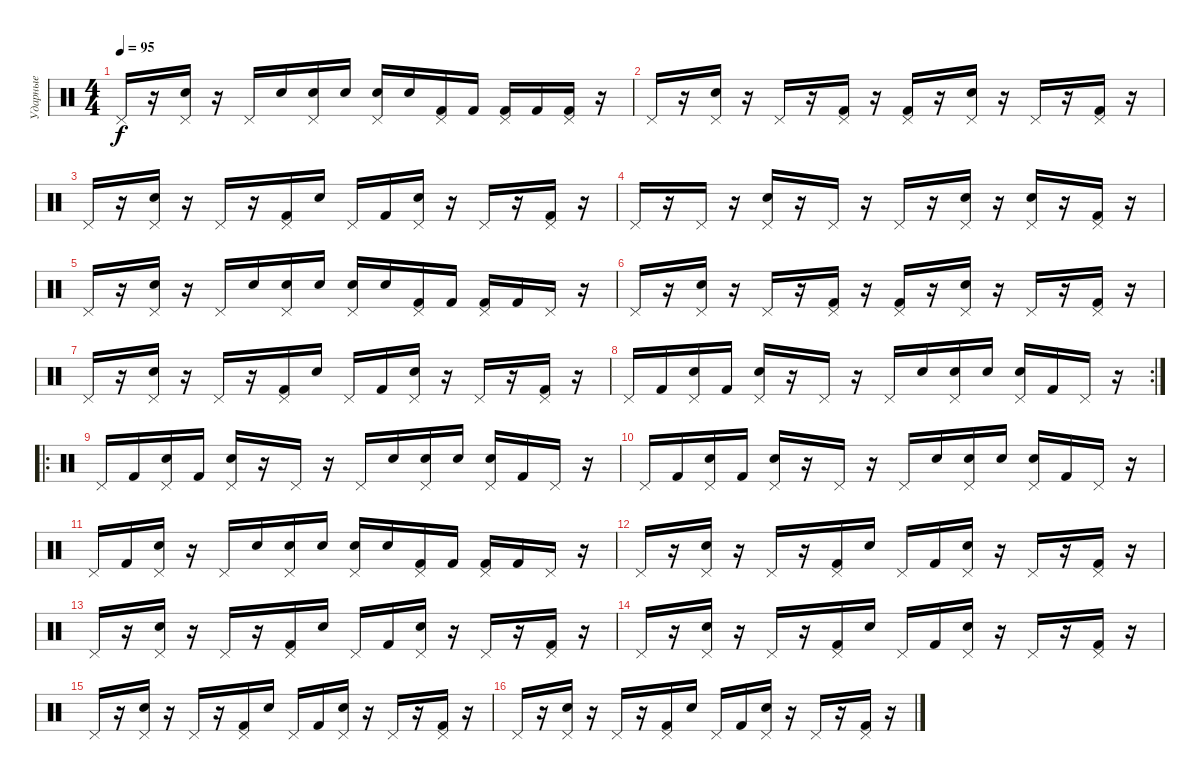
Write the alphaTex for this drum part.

\track ("Ударные" "Ударные") {instrument percussion}
\staff {score}
\articulation defaults
\ts (4 4)
\tempo 95
\clef neutral
\ks c "Pedal Hi-Hat (hit)".16{dy f}
r.16 ("Pedal Hi-Hat (hit)" "Snare (hit) 2").16 r.16 "Pedal Hi-Hat (hit)".16 "Snare (hit) 2".16 ("Pedal Hi-Hat (hit)" "Snare (hit) 2").16 "Snare (hit) 2".16 ("Pedal Hi-Hat (hit)" "Snare (hit) 2").16 "Snare (hit) 2".16 ("Pedal Hi-Hat (hit)" "Kick (hit) 2").16 "Kick (hit) 2".16 ("Pedal Hi-Hat (hit)" "Kick (hit) 2").16 "Kick (hit) 2".16 ("Pedal Hi-Hat (hit)" "Kick (hit) 2").16 r.16 |
"Pedal Hi-Hat (hit)".16 r.16 ("Pedal Hi-Hat (hit)" "Snare (hit) 2").16 r.16 "Pedal Hi-Hat (hit)".16 r.16 ("Pedal Hi-Hat (hit)" "Kick (hit) 2").16 r.16 ("Pedal Hi-Hat (hit)" "Kick (hit) 2").16 r.16 ("Pedal Hi-Hat (hit)" "Snare (hit) 2").16 r.16 "Pedal Hi-Hat (hit)".16 r.16 ("Pedal Hi-Hat (hit)" "Kick (hit) 2").16 r.16 |
"Pedal Hi-Hat (hit)".16 r.16 ("Pedal Hi-Hat (hit)" "Snare (hit) 2").16 r.16 "Pedal Hi-Hat (hit)".16 r.16 ("Pedal Hi-Hat (hit)" "Kick (hit) 2").16 "Snare (hit) 2".16 "Pedal Hi-Hat (hit)".16 "Kick (hit) 2".16 ("Pedal Hi-Hat (hit)" "Snare (hit) 2").16 r.16 "Pedal Hi-Hat (hit)".16 r.16 ("Pedal Hi-Hat (hit)" "Kick (hit) 2").16 r.16 |
"Pedal Hi-Hat (hit)".16 r.16 "Pedal Hi-Hat (hit)".16 r.16 ("Pedal Hi-Hat (hit)" "Snare (hit) 2").16 r.16 "Pedal Hi-Hat (hit)".16 r.16 "Pedal Hi-Hat (hit)".16 r.16 ("Pedal Hi-Hat (hit)" "Snare (hit) 2").16 r.16 ("Pedal Hi-Hat (hit)" "Snare (hit) 2").16 r.16 ("Pedal Hi-Hat (hit)" "Kick (hit) 2").16 r.16 |
"Pedal Hi-Hat (hit)".16 r.16 ("Pedal Hi-Hat (hit)" "Snare (hit) 2").16 r.16 "Pedal Hi-Hat (hit)".16 "Snare (hit) 2".16 ("Pedal Hi-Hat (hit)" "Snare (hit) 2").16 "Snare (hit) 2".16 ("Pedal Hi-Hat (hit)" "Snare (hit) 2").16 "Snare (hit) 2".16 ("Pedal Hi-Hat (hit)" "Kick (hit) 2").16 "Kick (hit) 2".16 ("Pedal Hi-Hat (hit)" "Kick (hit) 2").16 "Kick (hit) 2".16 "Pedal Hi-Hat (hit)".16 r.16 |
"Pedal Hi-Hat (hit)".16 r.16 ("Pedal Hi-Hat (hit)" "Snare (hit) 2").16 r.16 "Pedal Hi-Hat (hit)".16 r.16 ("Pedal Hi-Hat (hit)" "Kick (hit) 2").16 r.16 ("Pedal Hi-Hat (hit)" "Kick (hit) 2").16 r.16 ("Pedal Hi-Hat (hit)" "Snare (hit) 2").16 r.16 "Pedal Hi-Hat (hit)".16 r.16 ("Pedal Hi-Hat (hit)" "Kick (hit) 2").16 r.16 |
"Pedal Hi-Hat (hit)".16 r.16 ("Pedal Hi-Hat (hit)" "Snare (hit) 2").16 r.16 "Pedal Hi-Hat (hit)".16 r.16 ("Pedal Hi-Hat (hit)" "Kick (hit) 2").16 "Snare (hit) 2".16 "Pedal Hi-Hat (hit)".16 "Kick (hit) 2".16 ("Pedal Hi-Hat (hit)" "Snare (hit) 2").16 r.16 "Pedal Hi-Hat (hit)".16 r.16 ("Pedal Hi-Hat (hit)" "Kick (hit) 2").16 r.16 |
\rc 2 "Pedal Hi-Hat (hit)".16 "Kick (hit) 2".16
("Pedal Hi-Hat (hit)" "Snare (hit) 2").16 "Kick (hit) 2".16 ("Pedal Hi-Hat (hit)" "Snare (hit) 2").16 r.16 "Pedal Hi-Hat (hit)".16 r.16 "Pedal Hi-Hat (hit)".16 "Snare (hit) 2".16 ("Pedal Hi-Hat (hit)" "Snare (hit) 2").16 "Snare (hit) 2".16 ("Pedal Hi-Hat (hit)" "Snare (hit) 2").16 "Kick (hit) 2".16 "Pedal Hi-Hat (hit)".16 r.16 |
\ro "Pedal Hi-Hat (hit)".16 "Kick (hit) 2".16
("Pedal Hi-Hat (hit)" "Snare (hit) 2").16 "Kick (hit) 2".16 ("Pedal Hi-Hat (hit)" "Snare (hit) 2").16 r.16 "Pedal Hi-Hat (hit)".16 r.16 "Pedal Hi-Hat (hit)".16 "Snare (hit) 2".16 ("Pedal Hi-Hat (hit)" "Snare (hit) 2").16 "Snare (hit) 2".16 ("Pedal Hi-Hat (hit)" "Snare (hit) 2").16 "Kick (hit) 2".16 "Pedal Hi-Hat (hit)".16 r.16 |
"Pedal Hi-Hat (hit)".16 "Kick (hit) 2".16 ("Pedal Hi-Hat (hit)" "Snare (hit) 2").16 "Kick (hit) 2".16 ("Pedal Hi-Hat (hit)" "Snare (hit) 2").16 r.16 "Pedal Hi-Hat (hit)".16 r.16 "Pedal Hi-Hat (hit)".16 "Snare (hit) 2".16 ("Pedal Hi-Hat (hit)" "Snare (hit) 2").16 "Snare (hit) 2".16 ("Pedal Hi-Hat (hit)" "Snare (hit) 2").16 "Kick (hit) 2".16 "Pedal Hi-Hat (hit)".16 r.16 |
"Pedal Hi-Hat (hit)".16 "Kick (hit) 2".16 ("Pedal Hi-Hat (hit)" "Snare (hit) 2").16 r.16 "Pedal Hi-Hat (hit)".16 "Snare (hit) 2".16 ("Pedal Hi-Hat (hit)" "Snare (hit) 2").16 "Snare (hit) 2".16 ("Pedal Hi-Hat (hit)" "Snare (hit) 2").16 "Snare (hit) 2".16 ("Pedal Hi-Hat (hit)" "Kick (hit) 2").16 "Kick (hit) 2".16 ("Pedal Hi-Hat (hit)" "Kick (hit) 2").16 "Kick (hit) 2".16 "Pedal Hi-Hat (hit)".16 r.16 |
"Pedal Hi-Hat (hit)".16 r.16 ("Pedal Hi-Hat (hit)" "Snare (hit) 2").16 r.16 "Pedal Hi-Hat (hit)".16 r.16 ("Pedal Hi-Hat (hit)" "Kick (hit) 2").16 "Snare (hit) 2".16 "Pedal Hi-Hat (hit)".16 "Kick (hit) 2".16 ("Pedal Hi-Hat (hit)" "Snare (hit) 2").16 r.16 "Pedal Hi-Hat (hit)".16 r.16 ("Pedal Hi-Hat (hit)" "Kick (hit) 2").16 r.16 |
"Pedal Hi-Hat (hit)".16 r.16 ("Pedal Hi-Hat (hit)" "Snare (hit) 2").16 r.16 "Pedal Hi-Hat (hit)".16 r.16 ("Pedal Hi-Hat (hit)" "Kick (hit) 2").16 "Snare (hit) 2".16 "Pedal Hi-Hat (hit)".16 "Kick (hit) 2".16 ("Pedal Hi-Hat (hit)" "Snare (hit) 2").16 r.16 "Pedal Hi-Hat (hit)".16 r.16 ("Pedal Hi-Hat (hit)" "Kick (hit) 2").16 r.16 |
"Pedal Hi-Hat (hit)".16 r.16 ("Pedal Hi-Hat (hit)" "Snare (hit) 2").16 r.16 "Pedal Hi-Hat (hit)".16 r.16 ("Pedal Hi-Hat (hit)" "Kick (hit) 2").16 "Snare (hit) 2".16 "Pedal Hi-Hat (hit)".16 "Kick (hit) 2".16 ("Pedal Hi-Hat (hit)" "Snare (hit) 2").16 r.16 "Pedal Hi-Hat (hit)".16 r.16 ("Pedal Hi-Hat (hit)" "Kick (hit) 2").16 r.16 |
"Pedal Hi-Hat (hit)".16 r.16 ("Pedal Hi-Hat (hit)" "Snare (hit) 2").16 r.16 "Pedal Hi-Hat (hit)".16 r.16 ("Pedal Hi-Hat (hit)" "Kick (hit) 2").16 "Snare (hit) 2".16 "Pedal Hi-Hat (hit)".16 "Kick (hit) 2".16 ("Pedal Hi-Hat (hit)" "Snare (hit) 2").16 r.16 "Pedal Hi-Hat (hit)".16 r.16 ("Pedal Hi-Hat (hit)" "Kick (hit) 2").16 r.16 |
"Pedal Hi-Hat (hit)".16 r.16 ("Pedal Hi-Hat (hit)" "Snare (hit) 2").16 r.16 "Pedal Hi-Hat (hit)".16 r.16 ("Pedal Hi-Hat (hit)" "Kick (hit) 2").16 "Snare (hit) 2".16 "Pedal Hi-Hat (hit)".16 "Kick (hit) 2".16 ("Pedal Hi-Hat (hit)" "Snare (hit) 2").16 r.16 "Pedal Hi-Hat (hit)".16 r.16 ("Pedal Hi-Hat (hit)" "Kick (hit) 2").16 r.16
